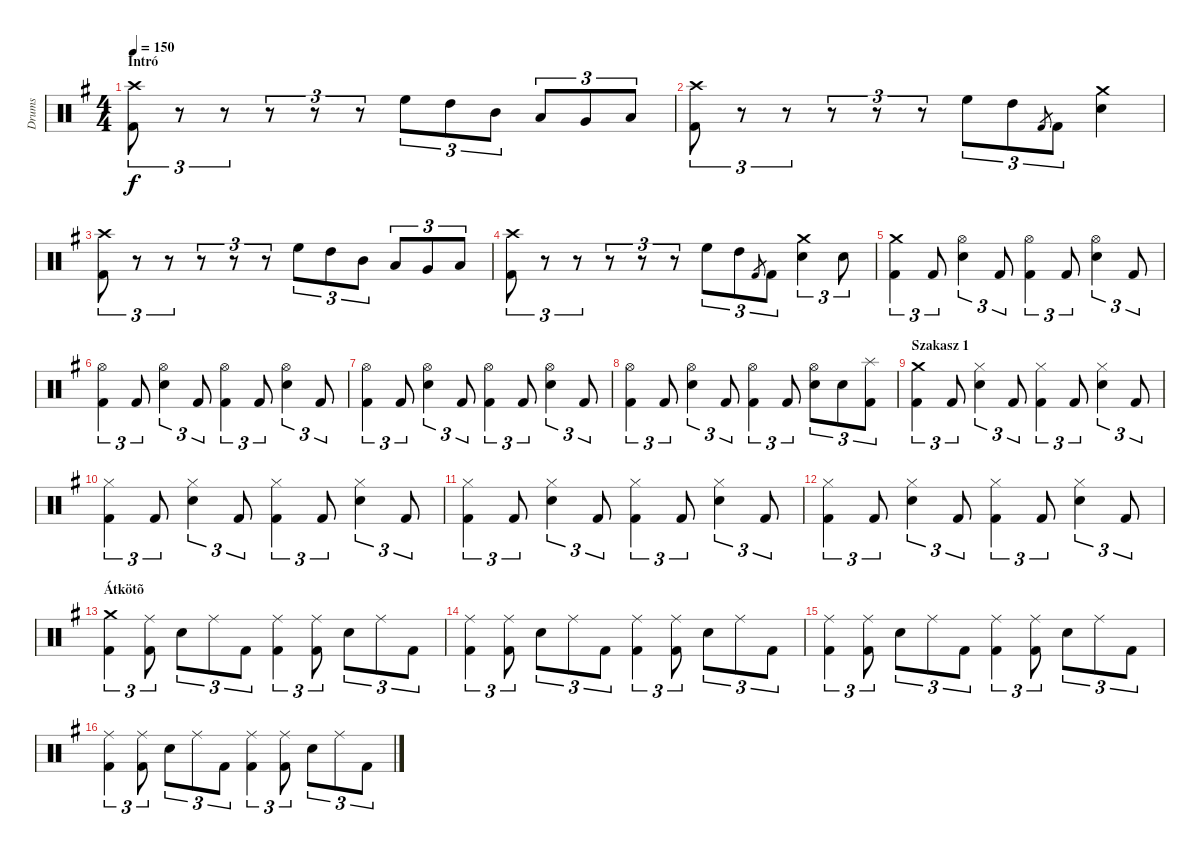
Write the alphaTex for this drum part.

\track ("Drums" "Drums") {instrument percussion}
\staff {score}
\articulation defaults
\ts (4 4)
\section ("" "Intró")
\tempo 150
\clef neutral
\ks g
("Crash high (hit)" "Kick (hit) 2").8{tu (3 2) dy f} r.8{tu (3 2)} r.8{tu (3 2)} r.8{tu (3 2)} r.8{tu (3 2)} r.8{tu (3 2)} "High Floor Tom (hit)".8{tu (3 2)} "High Tom (hit)".8{tu (3 2)} "Mid Tom (hit)".8{tu (3 2)} "Low Tom (hit)".8{tu (3 2)} "Very Low Tom (hit)".8{tu (3 2)} "Low Floor Tom (hit)".8{tu (3 2)} |
("Crash high (hit)" "Kick (hit) 2").8{tu (3 2)} r.8{tu (3 2)} r.8{tu (3 2)} r.8{tu (3 2)} r.8{tu (3 2)} r.8{tu (3 2)} "High Floor Tom (hit)".8{tu (3 2)} "High Tom (hit)".8{tu (3 2)} "Kick (hit) 2".8{gr} "Kick (hit) 2".8{tu (3 2)} ("Crash medium (hit)" "Snare (hit) 2").4 |
("Crash high (hit)" "Kick (hit) 2").8{tu (3 2)} r.8{tu (3 2)} r.8{tu (3 2)} r.8{tu (3 2)} r.8{tu (3 2)} r.8{tu (3 2)} "High Floor Tom (hit)".8{tu (3 2)} "High Tom (hit)".8{tu (3 2)} "Mid Tom (hit)".8{tu (3 2)} "Low Tom (hit)".8{tu (3 2)} "Very Low Tom (hit)".8{tu (3 2)} "Low Floor Tom (hit)".8{tu (3 2)} |
("Crash high (hit)" "Kick (hit) 2").8{tu (3 2)} r.8{tu (3 2)} r.8{tu (3 2)} r.8{tu (3 2)} r.8{tu (3 2)} r.8{tu (3 2)} "High Floor Tom (hit)".8{tu (3 2)} "High Tom (hit)".8{tu (3 2)} "Kick (hit) 2".8{gr} "Kick (hit) 2".8{tu (3 2)} ("Crash medium (hit)" "Snare (hit) 2").4{tu (3 2)} "Snare (hit) 2".8{tu (3 2)} |
("Crash medium (hit)" "Kick (hit) 2").4{tu (3 2)} "Kick (hit) 2".8{tu (3 2)} ("Hi-Hat (open)" "Snare (hit) 2").4{tu (3 2)} "Kick (hit) 2".8{tu (3 2)} ("Hi-Hat (open)" "Kick (hit) 2").4{tu (3 2)} "Kick (hit) 2".8{tu (3 2)} ("Hi-Hat (open)" "Snare (hit) 2").4{tu (3 2)} "Kick (hit) 2".8{tu (3 2)} |
("Hi-Hat (open)" "Kick (hit) 2").4{tu (3 2)} "Kick (hit) 2".8{tu (3 2)} ("Hi-Hat (open)" "Snare (hit) 2").4{tu (3 2)} "Kick (hit) 2".8{tu (3 2)} ("Hi-Hat (open)" "Kick (hit) 2").4{tu (3 2)} "Kick (hit) 2".8{tu (3 2)} ("Hi-Hat (open)" "Snare (hit) 2").4{tu (3 2)} "Kick (hit) 2".8{tu (3 2)} |
("Hi-Hat (open)" "Kick (hit) 2").4{tu (3 2)} "Kick (hit) 2".8{tu (3 2)} ("Hi-Hat (open)" "Snare (hit) 2").4{tu (3 2)} "Kick (hit) 2".8{tu (3 2)} ("Hi-Hat (open)" "Kick (hit) 2").4{tu (3 2)} "Kick (hit) 2".8{tu (3 2)} ("Hi-Hat (open)" "Snare (hit) 2").4{tu (3 2)} "Kick (hit) 2".8{tu (3 2)} |
("Hi-Hat (open)" "Kick (hit) 2").4{tu (3 2)} "Kick (hit) 2".8{tu (3 2)} ("Hi-Hat (open)" "Snare (hit) 2").4{tu (3 2)} "Kick (hit) 2".8{tu (3 2)} ("Hi-Hat (open)" "Kick (hit) 2").4{tu (3 2)} "Kick (hit) 2".8{tu (3 2)} ("Hi-Hat (open)" "Snare (hit) 2").8{tu (3 2)} "Snare (hit) 2".8{tu (3 2)} ("Splash (hit)" "Kick (hit) 2").8{tu (3 2)} |
\section ("" "Szakasz 1")
\ks eminor
("Crash medium (hit)" "Kick (hit) 2").4{tu (3 2)} "Kick (hit) 2".8{tu (3 2)} ("Hi-Hat (closed)" "Snare (hit) 2").4{tu (3 2)} "Kick (hit) 2".8{tu (3 2)} ("Hi-Hat (closed)" "Kick (hit) 2").4{tu (3 2)} "Kick (hit) 2".8{tu (3 2)} ("Hi-Hat (closed)" "Snare (hit) 2").4{tu (3 2)} "Kick (hit) 2".8{tu (3 2)} |
("Hi-Hat (closed)" "Kick (hit) 2").4{tu (3 2)} "Kick (hit) 2".8{tu (3 2)} ("Hi-Hat (closed)" "Snare (hit) 2").4{tu (3 2)} "Kick (hit) 2".8{tu (3 2)} ("Hi-Hat (closed)" "Kick (hit) 2").4{tu (3 2)} "Kick (hit) 2".8{tu (3 2)} ("Hi-Hat (closed)" "Snare (hit) 2").4{tu (3 2)} "Kick (hit) 2".8{tu (3 2)} |
("Hi-Hat (closed)" "Kick (hit) 2").4{tu (3 2)} "Kick (hit) 2".8{tu (3 2)} ("Hi-Hat (closed)" "Snare (hit) 2").4{tu (3 2)} "Kick (hit) 2".8{tu (3 2)} ("Hi-Hat (closed)" "Kick (hit) 2").4{tu (3 2)} "Kick (hit) 2".8{tu (3 2)} ("Hi-Hat (closed)" "Snare (hit) 2").4{tu (3 2)} "Kick (hit) 2".8{tu (3 2)} |
("Hi-Hat (closed)" "Kick (hit) 2").4{tu (3 2)} "Kick (hit) 2".8{tu (3 2)} ("Hi-Hat (closed)" "Snare (hit) 2").4{tu (3 2)} "Kick (hit) 2".8{tu (3 2)} ("Hi-Hat (closed)" "Kick (hit) 2").4{tu (3 2)} "Kick (hit) 2".8{tu (3 2)} ("Hi-Hat (closed)" "Snare (hit) 2").4{tu (3 2)} "Kick (hit) 2".8{tu (3 2)} |
\section ("" "Átkötõ")
("Crash medium (hit)" "Kick (hit) 2").4{tu (3 2)} ("Ride (middle)" "Kick (hit) 2").8{tu (3 2)} "Snare (hit) 2".8{tu (3 2)} "Ride (middle)".8{tu (3 2)} "Kick (hit) 2".8{tu (3 2)} ("Ride (middle)" "Kick (hit) 2").4{tu (3 2)} ("Ride (middle)" "Kick (hit) 2").8{tu (3 2)} "Snare (hit) 2".8{tu (3 2)} "Ride (middle)".8{tu (3 2)} "Kick (hit) 2".8{tu (3 2)} |
("Ride (middle)" "Kick (hit) 2").4{tu (3 2)} ("Ride (middle)" "Kick (hit) 2").8{tu (3 2)} "Snare (hit) 2".8{tu (3 2)} "Ride (middle)".8{tu (3 2)} "Kick (hit) 2".8{tu (3 2)} ("Ride (middle)" "Kick (hit) 2").4{tu (3 2)} ("Ride (middle)" "Kick (hit) 2").8{tu (3 2)} "Snare (hit) 2".8{tu (3 2)} "Ride (middle)".8{tu (3 2)} "Kick (hit) 2".8{tu (3 2)} |
("Ride (middle)" "Kick (hit) 2").4{tu (3 2)} ("Ride (middle)" "Kick (hit) 2").8{tu (3 2)} "Snare (hit) 2".8{tu (3 2)} "Ride (middle)".8{tu (3 2)} "Kick (hit) 2".8{tu (3 2)} ("Ride (middle)" "Kick (hit) 2").4{tu (3 2)} ("Ride (middle)" "Kick (hit) 2").8{tu (3 2)} "Snare (hit) 2".8{tu (3 2)} "Ride (middle)".8{tu (3 2)} "Kick (hit) 2".8{tu (3 2)} |
("Ride (middle)" "Kick (hit) 2").4{tu (3 2)} ("Ride (middle)" "Kick (hit) 2").8{tu (3 2)} "Snare (hit) 2".8{tu (3 2)} "Ride (middle)".8{tu (3 2)} "Kick (hit) 2".8{tu (3 2)} ("Ride (middle)" "Kick (hit) 2").4{tu (3 2)} ("Ride (middle)" "Kick (hit) 2").8{tu (3 2)} "Snare (hit) 2".8{tu (3 2)} "Ride (middle)".8{tu (3 2)} "Kick (hit) 2".8{tu (3 2)}
